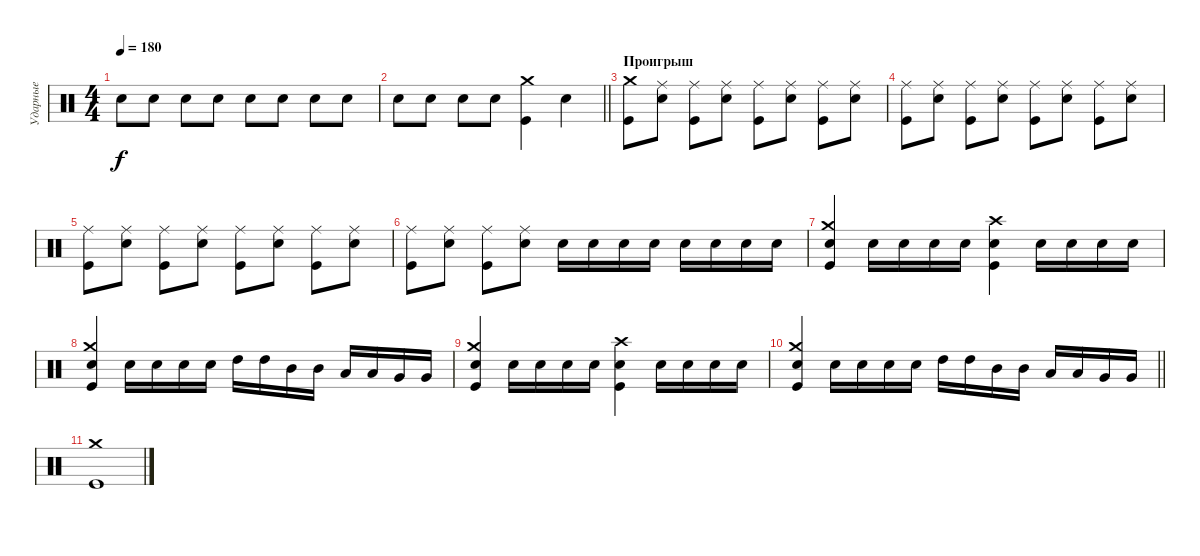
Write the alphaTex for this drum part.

\track ("Ударные" "Ударные") {instrument percussion}
\staff {score}
\articulation defaults
\ts (4 4)
\tempo 180
\clef neutral
\ks c "Electric Snare (hit)".8{dy f} "Electric Snare (hit)".8 "Electric Snare (hit)".8 "Electric Snare (hit)".8 "Electric Snare (hit)".8 "Electric Snare (hit)".8 "Electric Snare (hit)".8 "Electric Snare (hit)".8
|
\barLineRight lightlight "Electric Snare (hit)".8 "Electric Snare (hit)".8 "Electric Snare (hit)".8 "Electric Snare (hit)".8
("Crash medium (hit)" "Kick (hit)").4 "Electric Snare (hit)".4 |
\section ("" "Проигрыш")
("Crash medium (hit)" "Kick (hit)").8 ("Ride (middle)" "Electric Snare (hit)").8 ("Ride (middle)" "Kick (hit)").8 ("Ride (middle)" "Electric Snare (hit)").8 ("Ride (middle)" "Kick (hit)").8 ("Ride (middle)" "Electric Snare (hit)").8 ("Ride (middle)" "Kick (hit)").8 ("Ride (middle)" "Electric Snare (hit)").8 |
("Ride (middle)" "Kick (hit)").8 ("Ride (middle)" "Electric Snare (hit)").8 ("Ride (middle)" "Kick (hit)").8 ("Ride (middle)" "Electric Snare (hit)").8 ("Ride (middle)" "Kick (hit)").8 ("Ride (middle)" "Electric Snare (hit)").8 ("Ride (middle)" "Kick (hit)").8 ("Ride (middle)" "Electric Snare (hit)").8 |
("Ride (middle)" "Kick (hit)").8 ("Ride (middle)" "Electric Snare (hit)").8 ("Ride (middle)" "Kick (hit)").8 ("Ride (middle)" "Electric Snare (hit)").8 ("Ride (middle)" "Kick (hit)").8 ("Ride (middle)" "Electric Snare (hit)").8 ("Ride (middle)" "Kick (hit)").8 ("Ride (middle)" "Electric Snare (hit)").8 |
("Ride (middle)" "Kick (hit)").8 ("Ride (middle)" "Electric Snare (hit)").8 ("Ride (middle)" "Kick (hit)").8 ("Ride (middle)" "Electric Snare (hit)").8 "Electric Snare (hit)".16 "Electric Snare (hit)".16 "Electric Snare (hit)".16 "Electric Snare (hit)".16 "Electric Snare (hit)".16 "Electric Snare (hit)".16 "Electric Snare (hit)".16 "Electric Snare (hit)".16 |
("Crash medium (hit)" "Kick (hit)" "Electric Snare (hit)").4 "Electric Snare (hit)".16 "Electric Snare (hit)".16 "Electric Snare (hit)".16 "Electric Snare (hit)".16 ("Crash high (hit)" "Kick (hit)" "Electric Snare (hit)").4 "Electric Snare (hit)".16 "Electric Snare (hit)".16 "Electric Snare (hit)".16 "Electric Snare (hit)".16 |
("Crash medium (hit)" "Kick (hit)" "Electric Snare (hit)").4 "Electric Snare (hit)".16 "Electric Snare (hit)".16 "Electric Snare (hit)".16 "Electric Snare (hit)".16 "High Tom (hit)".16 "High Tom (hit)".16 "Mid Tom (hit)".16 "Mid Tom (hit)".16 "Low Tom (hit)".16 "Low Tom (hit)".16 "Very Low Tom (hit)".16 "Very Low Tom (hit)".16 |
("Crash medium (hit)" "Kick (hit)" "Electric Snare (hit)").4 "Electric Snare (hit)".16 "Electric Snare (hit)".16 "Electric Snare (hit)".16 "Electric Snare (hit)".16 ("Crash high (hit)" "Kick (hit)" "Electric Snare (hit)").4 "Electric Snare (hit)".16 "Electric Snare (hit)".16 "Electric Snare (hit)".16 "Electric Snare (hit)".16 |
\barLineRight lightlight
("Crash medium (hit)" "Kick (hit)" "Electric Snare (hit)").4 "Electric Snare (hit)".16 "Electric Snare (hit)".16 "Electric Snare (hit)".16 "Electric Snare (hit)".16 "High Tom (hit)".16 "High Tom (hit)".16 "Mid Tom (hit)".16 "Mid Tom (hit)".16 "Low Tom (hit)".16 "Low Tom (hit)".16 "Very Low Tom (hit)".16 "Very Low Tom (hit)".16 |
("Crash medium (hit)" "Kick (hit)").1
